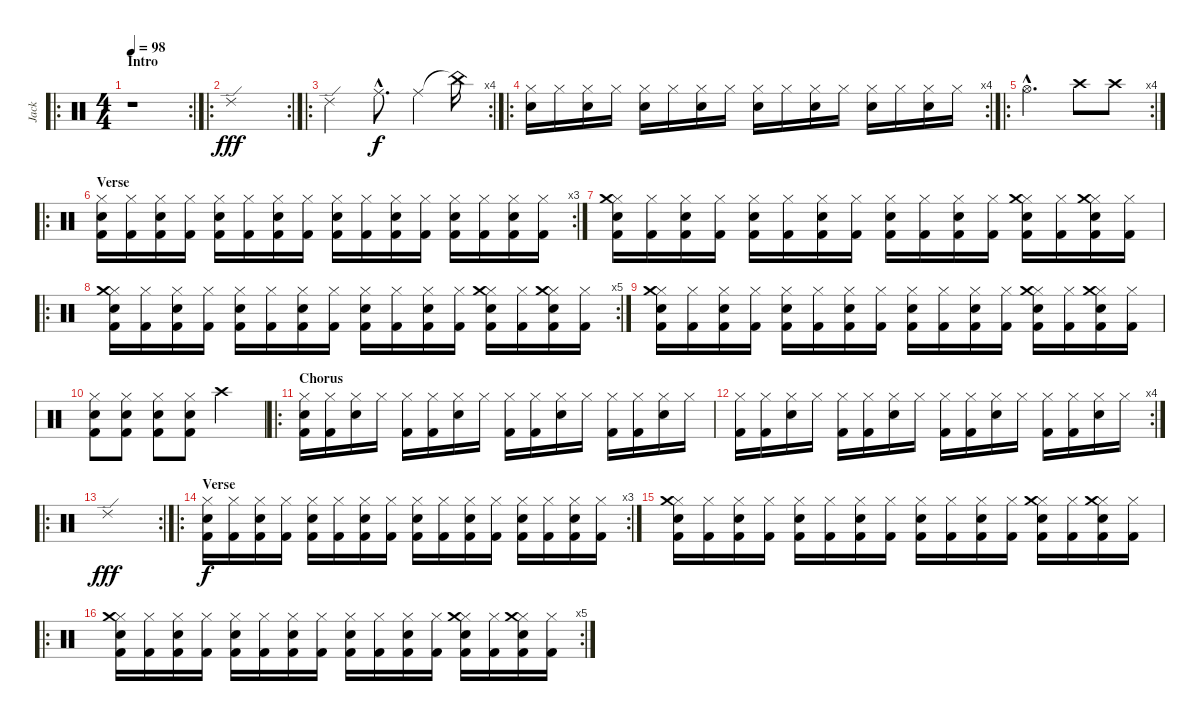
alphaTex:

\track ("Jack" "Jack") {instrument percussion}
\staff {score}
\articulation defaults
\ro
\rc 2
\ts (4 4)
\section ("" "Intro")
\tempo 98
\clef neutral
\ks c
r.1{dy fff} |
\ro
\rc 2 "Ride (edge) 2".1
|
\ro
\rc 4 "Ride (edge) 2".2 "Ride (middle)"{hac}.8{d dy f} "Ride (middle)".4 "China (hit)"{t}.16
|
\ro
\rc 4
("Hi-Hat (closed)" "Snare (hit) 2").16 "Hi-Hat (closed)".16 ("Hi-Hat (closed)" "Snare (hit) 2").16 "Hi-Hat (closed)".16 ("Hi-Hat (closed)" "Snare (hit) 2").16 "Hi-Hat (closed)".16 ("Hi-Hat (closed)" "Snare (hit) 2").16 "Hi-Hat (closed)".16 ("Hi-Hat (closed)" "Snare (hit) 2").16 "Hi-Hat (closed)".16 ("Hi-Hat (closed)" "Snare (hit) 2").16 "Hi-Hat (closed)".16 ("Hi-Hat (closed)" "Snare (hit) 2").16 "Hi-Hat (closed)".16 ("Hi-Hat (closed)" "Snare (hit) 2").16 "Hi-Hat (closed)".16 |
\ro
\rc 4 "Hi-Hat (open)"{hac}.2{d} "Crash high (hit)".8 "Crash high (hit)".8
|
\ro
\rc 3
\section ("" "Verse")
("Hi-Hat (closed)" "Snare (hit) 2" "Kick (hit) 2").16 ("Hi-Hat (closed)" "Kick (hit) 2").16 ("Hi-Hat (closed)" "Snare (hit) 2" "Kick (hit) 2").16 ("Hi-Hat (closed)" "Kick (hit) 2").16 ("Hi-Hat (closed)" "Snare (hit) 2" "Kick (hit) 2").16 ("Hi-Hat (closed)" "Kick (hit) 2").16 ("Hi-Hat (closed)" "Snare (hit) 2" "Kick (hit) 2").16 ("Hi-Hat (closed)" "Kick (hit) 2").16 ("Hi-Hat (closed)" "Snare (hit) 2" "Kick (hit) 2").16 ("Hi-Hat (closed)" "Kick (hit) 2").16 ("Hi-Hat (closed)" "Snare (hit) 2" "Kick (hit) 2").16 ("Hi-Hat (closed)" "Kick (hit) 2").16 ("Hi-Hat (closed)" "Snare (hit) 2" "Kick (hit) 2").16 ("Hi-Hat (closed)" "Kick (hit) 2").16 ("Hi-Hat (closed)" "Snare (hit) 2" "Kick (hit) 2").16 ("Hi-Hat (closed)" "Kick (hit) 2").16 |
("Hi-Hat (closed)" "Snare (hit) 2" "Crash medium (hit)" "Kick (hit) 2").16 ("Hi-Hat (closed)" "Kick (hit) 2").16 ("Hi-Hat (closed)" "Snare (hit) 2" "Kick (hit) 2").16 ("Hi-Hat (closed)" "Kick (hit) 2").16 ("Hi-Hat (closed)" "Snare (hit) 2" "Kick (hit) 2").16 ("Hi-Hat (closed)" "Kick (hit) 2").16 ("Hi-Hat (closed)" "Snare (hit) 2" "Kick (hit) 2").16 ("Hi-Hat (closed)" "Kick (hit) 2").16 ("Hi-Hat (closed)" "Snare (hit) 2" "Kick (hit) 2").16 ("Hi-Hat (closed)" "Kick (hit) 2").16 ("Hi-Hat (closed)" "Snare (hit) 2" "Kick (hit) 2").16 ("Hi-Hat (closed)" "Kick (hit) 2").16 ("Hi-Hat (closed)" "Snare (hit) 2" "Crash medium (hit)" "Kick (hit) 2").16 ("Hi-Hat (closed)" "Kick (hit) 2").16 ("Hi-Hat (closed)" "Snare (hit) 2" "Crash medium (hit)" "Kick (hit) 2").16 ("Hi-Hat (closed)" "Kick (hit) 2").16 |
\ro
\rc 5
("Hi-Hat (closed)" "Snare (hit) 2" "Crash medium (hit)" "Kick (hit) 2").16 ("Hi-Hat (closed)" "Kick (hit) 2").16 ("Hi-Hat (closed)" "Snare (hit) 2" "Kick (hit) 2").16 ("Hi-Hat (closed)" "Kick (hit) 2").16 ("Hi-Hat (closed)" "Snare (hit) 2" "Kick (hit) 2").16 ("Hi-Hat (closed)" "Kick (hit) 2").16 ("Hi-Hat (closed)" "Snare (hit) 2" "Kick (hit) 2").16 ("Hi-Hat (closed)" "Kick (hit) 2").16 ("Hi-Hat (closed)" "Snare (hit) 2" "Kick (hit) 2").16 ("Hi-Hat (closed)" "Kick (hit) 2").16 ("Hi-Hat (closed)" "Snare (hit) 2" "Kick (hit) 2").16 ("Hi-Hat (closed)" "Kick (hit) 2").16 ("Hi-Hat (closed)" "Snare (hit) 2" "Crash medium (hit)" "Kick (hit) 2").16 ("Hi-Hat (closed)" "Kick (hit) 2").16 ("Hi-Hat (closed)" "Snare (hit) 2" "Crash medium (hit)" "Kick (hit) 2").16 ("Hi-Hat (closed)" "Kick (hit) 2").16 |
("Hi-Hat (closed)" "Snare (hit) 2" "Crash medium (hit)" "Kick (hit) 2").16 ("Hi-Hat (closed)" "Kick (hit) 2").16 ("Hi-Hat (closed)" "Snare (hit) 2" "Kick (hit) 2").16 ("Hi-Hat (closed)" "Kick (hit) 2").16 ("Hi-Hat (closed)" "Snare (hit) 2" "Kick (hit) 2").16 ("Hi-Hat (closed)" "Kick (hit) 2").16 ("Hi-Hat (closed)" "Snare (hit) 2" "Kick (hit) 2").16 ("Hi-Hat (closed)" "Kick (hit) 2").16 ("Hi-Hat (closed)" "Snare (hit) 2" "Kick (hit) 2").16 ("Hi-Hat (closed)" "Kick (hit) 2").16 ("Hi-Hat (closed)" "Snare (hit) 2" "Kick (hit) 2").16 ("Hi-Hat (closed)" "Kick (hit) 2").16 ("Hi-Hat (closed)" "Snare (hit) 2" "Crash medium (hit)" "Kick (hit) 2").16 ("Hi-Hat (closed)" "Kick (hit) 2").16 ("Hi-Hat (closed)" "Snare (hit) 2" "Crash medium (hit)" "Kick (hit) 2").16 ("Hi-Hat (closed)" "Kick (hit) 2").16 |
("Hi-Hat (closed)" "Snare (hit) 2" "Kick (hit) 2").8 ("Hi-Hat (closed)" "Snare (hit) 2" "Kick (hit) 2").8 ("Hi-Hat (closed)" "Snare (hit) 2" "Kick (hit) 2").8 ("Hi-Hat (closed)" "Snare (hit) 2" "Kick (hit) 2").8 "Crash high (hit)".2 |
\ro
\section ("" "Chorus")
("Snare (hit)" "Hi-Hat (closed)" "Kick (hit) 2").16 ("Hi-Hat (closed)" "Kick (hit) 2").16 ("Hi-Hat (closed)" "Snare (hit) 2").16 "Hi-Hat (closed)".16 ("Hi-Hat (closed)" "Kick (hit) 2").16 ("Hi-Hat (closed)" "Kick (hit) 2").16 ("Hi-Hat (closed)" "Snare (hit) 2").16 "Hi-Hat (closed)".16 ("Hi-Hat (closed)" "Kick (hit) 2").16 ("Hi-Hat (closed)" "Kick (hit) 2").16 ("Hi-Hat (closed)" "Snare (hit) 2").16 "Hi-Hat (closed)".16 ("Hi-Hat (closed)" "Kick (hit) 2").16 ("Hi-Hat (closed)" "Kick (hit) 2").16 ("Hi-Hat (closed)" "Snare (hit) 2").16 "Hi-Hat (closed)".16 |
\rc 4
("Hi-Hat (closed)" "Kick (hit) 2").16 ("Hi-Hat (closed)" "Kick (hit) 2").16 ("Hi-Hat (closed)" "Snare (hit) 2").16 "Hi-Hat (closed)".16 ("Hi-Hat (closed)" "Kick (hit) 2").16 ("Hi-Hat (closed)" "Kick (hit) 2").16 ("Hi-Hat (closed)" "Snare (hit) 2").16 "Hi-Hat (closed)".16 ("Hi-Hat (closed)" "Kick (hit) 2").16 ("Hi-Hat (closed)" "Kick (hit) 2").16 ("Hi-Hat (closed)" "Snare (hit) 2").16 "Hi-Hat (closed)".16 ("Hi-Hat (closed)" "Kick (hit) 2").16 ("Hi-Hat (closed)" "Kick (hit) 2").16 ("Hi-Hat (closed)" "Snare (hit) 2").16 "Hi-Hat (closed)".16 |
\ro
\rc 2 "Ride (edge) 2".1{dy fff}
|
\ro
\rc 3
\section ("" "Verse")
("Hi-Hat (closed)" "Snare (hit) 2" "Kick (hit) 2").16{dy f} ("Hi-Hat (closed)" "Kick (hit) 2").16 ("Hi-Hat (closed)" "Snare (hit) 2" "Kick (hit) 2").16 ("Hi-Hat (closed)" "Kick (hit) 2").16 ("Hi-Hat (closed)" "Snare (hit) 2" "Kick (hit) 2").16 ("Hi-Hat (closed)" "Kick (hit) 2").16 ("Hi-Hat (closed)" "Snare (hit) 2" "Kick (hit) 2").16 ("Hi-Hat (closed)" "Kick (hit) 2").16 ("Hi-Hat (closed)" "Snare (hit) 2" "Kick (hit) 2").16 ("Hi-Hat (closed)" "Kick (hit) 2").16 ("Hi-Hat (closed)" "Snare (hit) 2" "Kick (hit) 2").16 ("Hi-Hat (closed)" "Kick (hit) 2").16 ("Hi-Hat (closed)" "Snare (hit) 2" "Kick (hit) 2").16 ("Hi-Hat (closed)" "Kick (hit) 2").16 ("Hi-Hat (closed)" "Snare (hit) 2" "Kick (hit) 2").16 ("Hi-Hat (closed)" "Kick (hit) 2").16 |
("Hi-Hat (closed)" "Snare (hit) 2" "Crash medium (hit)" "Kick (hit) 2").16 ("Hi-Hat (closed)" "Kick (hit) 2").16 ("Hi-Hat (closed)" "Snare (hit) 2" "Kick (hit) 2").16 ("Hi-Hat (closed)" "Kick (hit) 2").16 ("Hi-Hat (closed)" "Snare (hit) 2" "Kick (hit) 2").16 ("Hi-Hat (closed)" "Kick (hit) 2").16 ("Hi-Hat (closed)" "Snare (hit) 2" "Kick (hit) 2").16 ("Hi-Hat (closed)" "Kick (hit) 2").16 ("Hi-Hat (closed)" "Snare (hit) 2" "Kick (hit) 2").16 ("Hi-Hat (closed)" "Kick (hit) 2").16 ("Hi-Hat (closed)" "Snare (hit) 2" "Kick (hit) 2").16 ("Hi-Hat (closed)" "Kick (hit) 2").16 ("Hi-Hat (closed)" "Snare (hit) 2" "Crash medium (hit)" "Kick (hit) 2").16 ("Hi-Hat (closed)" "Kick (hit) 2").16 ("Hi-Hat (closed)" "Snare (hit) 2" "Crash medium (hit)" "Kick (hit) 2").16 ("Hi-Hat (closed)" "Kick (hit) 2").16 |
\ro
\rc 5
("Hi-Hat (closed)" "Snare (hit) 2" "Crash medium (hit)" "Kick (hit) 2").16 ("Hi-Hat (closed)" "Kick (hit) 2").16 ("Hi-Hat (closed)" "Snare (hit) 2" "Kick (hit) 2").16 ("Hi-Hat (closed)" "Kick (hit) 2").16 ("Hi-Hat (closed)" "Snare (hit) 2" "Kick (hit) 2").16 ("Hi-Hat (closed)" "Kick (hit) 2").16 ("Hi-Hat (closed)" "Snare (hit) 2" "Kick (hit) 2").16 ("Hi-Hat (closed)" "Kick (hit) 2").16 ("Hi-Hat (closed)" "Snare (hit) 2" "Kick (hit) 2").16 ("Hi-Hat (closed)" "Kick (hit) 2").16 ("Hi-Hat (closed)" "Snare (hit) 2" "Kick (hit) 2").16 ("Hi-Hat (closed)" "Kick (hit) 2").16 ("Hi-Hat (closed)" "Snare (hit) 2" "Crash medium (hit)" "Kick (hit) 2").16 ("Hi-Hat (closed)" "Kick (hit) 2").16 ("Hi-Hat (closed)" "Snare (hit) 2" "Crash medium (hit)" "Kick (hit) 2").16 ("Hi-Hat (closed)" "Kick (hit) 2").16
